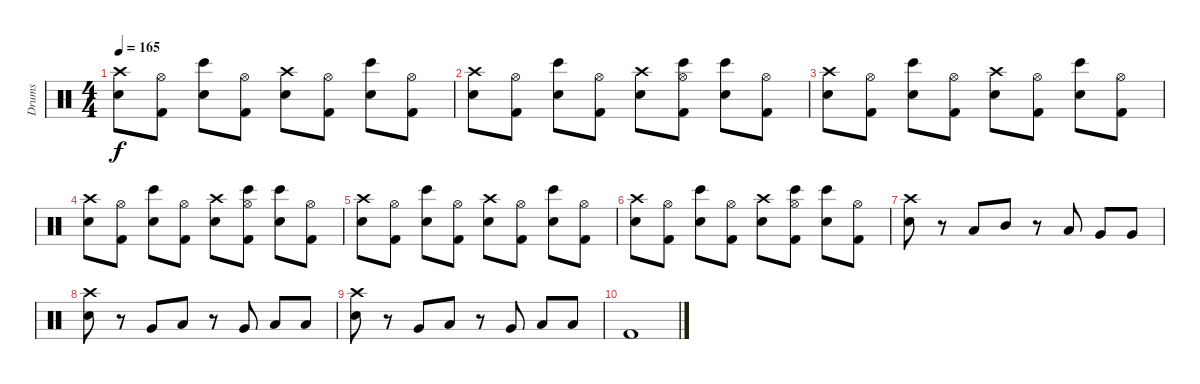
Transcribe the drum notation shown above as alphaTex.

\track ("Drums" "Drums") {instrument percussion}
\staff {score}
\articulation defaults
\ts (4 4)
\tempo 165
\clef neutral
\ks c
("Crash high (hit)" "Electric Snare (hit)").8{dy f} ("Hi-Hat (open)" "Kick (hit) 2").8 ("Electric Snare (hit)" "Bongo High (hit)").8 ("Hi-Hat (open)" "Kick (hit) 2").8 ("Crash high (hit)" "Electric Snare (hit)").8 ("Hi-Hat (open)" "Kick (hit) 2").8 ("Electric Snare (hit)" "Bongo High (hit)").8 ("Hi-Hat (open)" "Kick (hit) 2").8 |
("Crash high (hit)" "Electric Snare (hit)").8 ("Hi-Hat (open)" "Kick (hit) 2").8 ("Electric Snare (hit)" "Bongo High (hit)").8 ("Hi-Hat (open)" "Kick (hit) 2").8 ("Crash high (hit)" "Electric Snare (hit)").8 ("Hi-Hat (open)" "Kick (hit) 2" "Bongo High (hit)").8 ("Electric Snare (hit)" "Bongo High (hit)").8 ("Hi-Hat (open)" "Kick (hit) 2").8 |
("Crash high (hit)" "Electric Snare (hit)").8 ("Hi-Hat (open)" "Kick (hit) 2").8 ("Electric Snare (hit)" "Bongo High (hit)").8 ("Hi-Hat (open)" "Kick (hit) 2").8 ("Crash high (hit)" "Electric Snare (hit)").8 ("Hi-Hat (open)" "Kick (hit) 2").8 ("Electric Snare (hit)" "Bongo High (hit)").8 ("Hi-Hat (open)" "Kick (hit) 2").8 |
("Crash high (hit)" "Electric Snare (hit)").8 ("Hi-Hat (open)" "Kick (hit) 2").8 ("Electric Snare (hit)" "Bongo High (hit)").8 ("Hi-Hat (open)" "Kick (hit) 2").8 ("Crash high (hit)" "Electric Snare (hit)").8 ("Hi-Hat (open)" "Kick (hit) 2" "Bongo High (hit)").8 ("Electric Snare (hit)" "Bongo High (hit)").8 ("Hi-Hat (open)" "Kick (hit) 2").8 |
("Crash high (hit)" "Electric Snare (hit)").8 ("Hi-Hat (open)" "Kick (hit) 2").8 ("Electric Snare (hit)" "Bongo High (hit)").8 ("Hi-Hat (open)" "Kick (hit) 2").8 ("Crash high (hit)" "Electric Snare (hit)").8 ("Hi-Hat (open)" "Kick (hit) 2").8 ("Electric Snare (hit)" "Bongo High (hit)").8 ("Hi-Hat (open)" "Kick (hit) 2").8 |
("Crash high (hit)" "Electric Snare (hit)").8 ("Hi-Hat (open)" "Kick (hit) 2").8 ("Electric Snare (hit)" "Bongo High (hit)").8 ("Hi-Hat (open)" "Kick (hit) 2").8 ("Crash high (hit)" "Electric Snare (hit)").8 ("Hi-Hat (open)" "Kick (hit) 2" "Bongo High (hit)").8 ("Electric Snare (hit)" "Bongo High (hit)").8 ("Hi-Hat (open)" "Kick (hit) 2").8 |
("Crash high (hit)" "Electric Snare (hit)").8 r.8 "Low Tom (hit)".8 "Mid Tom (hit)".8 r.8 "Low Tom (hit)".8 "Very Low Tom (hit)".8 "Very Low Tom (hit)".8 |
("Crash high (hit)" "Electric Snare (hit)").8 r.8 "Very Low Tom (hit)".8 "Low Tom (hit)".8 r.8 "Very Low Tom (hit)".8 "Low Floor Tom (hit)".8 "Low Floor Tom (hit)".8 |
("Crash high (hit)" "Electric Snare (hit)").8 r.8 "Very Low Tom (hit)".8 "Low Tom (hit)".8 r.8 "Very Low Tom (hit)".8 "Low Floor Tom (hit)".8 "Low Floor Tom (hit)".8 |
"Kick (hit) 2".1
